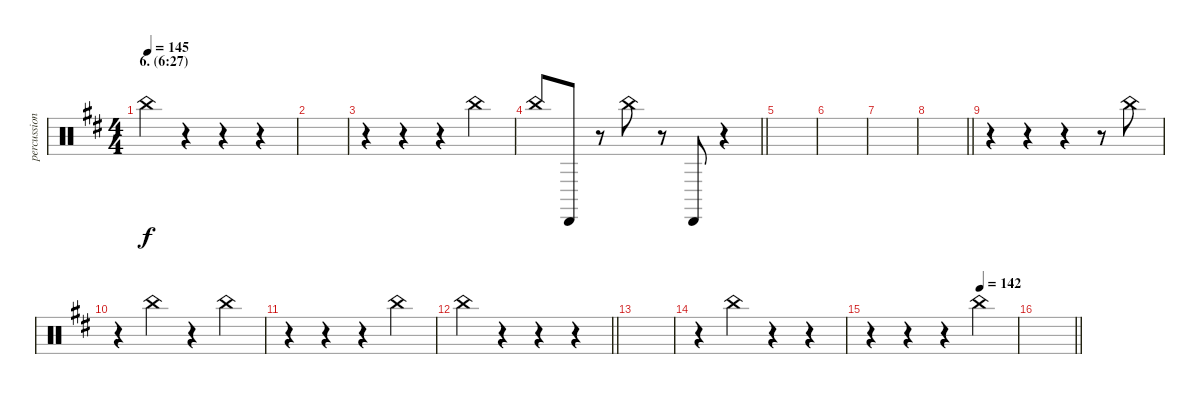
\track ("percussion" "percussion") {instrument percussion}
\staff {score}
\articulation defaults
\ts (4 4)
\section ("" "6. (6:27)")
\tempo 145
\clef neutral
\ks d "China (hit)".4{dy f}
r.4 r.4 r.4 |
|
r.4 r.4 r.4 "China (hit)".4 |
\barLineRight lightlight "China (hit)".8 "Cabasa (hit)".8
r.8 "China (hit)".8 r.8 "Cabasa (hit)".8 r.4 |
|
|
|
\barLineRight lightlight
|
r.4 r.4 r.4 r.8 "China (hit)".8 |
r.4 "China (hit)".4 r.4 "China (hit)".4 |
r.4 r.4 r.4 "China (hit)".4 |
\barLineRight lightlight "China (hit)".4
r.4 r.4 r.4 |
|
r.4 "China (hit)".4 r.4 r.4 |
\tempo (142 0.75)
r.4 r.4 r.4 "China (hit)".4 |
\barLineRight lightlight
